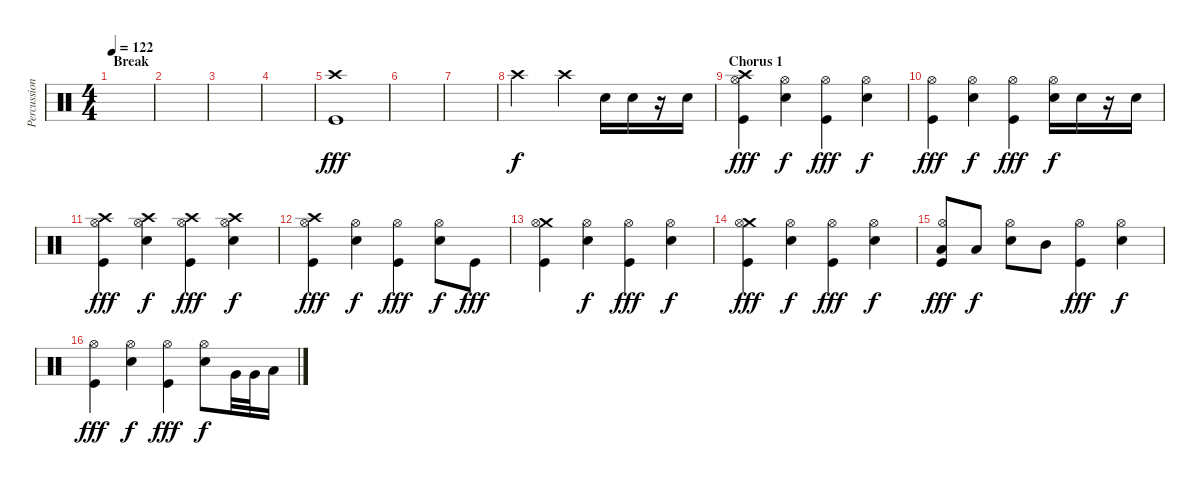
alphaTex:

\track ("Percussion" "Percussion") {instrument percussion}
\staff {score}
\articulation defaults
\ts (4 4)
\section ("" "Break")
\tempo 122
\clef neutral
\ks c
|
|
|
|
("Crash high (hit)" "Kick (hit)").1{dy fff volume 14} |
|
|
"Crash high (hit)".2{dy f} "Crash high (hit)".4 "Electric Snare (hit)".16 "Electric Snare (hit)".16 r.16 "Electric Snare (hit)".16 |
\section ("" "Chorus 1")
("Crash high (hit)" "Hi-Hat (open)" "Kick (hit)").4{dy fff} ("Hi-Hat (open)" "Electric Snare (hit)").4{dy f} ("Hi-Hat (open)" "Kick (hit)").4{dy fff} ("Hi-Hat (open)" "Electric Snare (hit)").4{dy f} |
("Hi-Hat (open)" "Kick (hit)").4{dy fff} ("Hi-Hat (open)" "Electric Snare (hit)").4{dy f} ("Hi-Hat (open)" "Kick (hit)").4{dy fff} ("Hi-Hat (open)" "Electric Snare (hit)").16{dy f} "Electric Snare (hit)".16 r.16 "Electric Snare (hit)".16 |
("Crash high (hit)" "Hi-Hat (open)" "Kick (hit)").4{dy fff} ("Crash high (hit)" "Hi-Hat (open)" "Electric Snare (hit)").4{dy f} ("Crash high (hit)" "Hi-Hat (open)" "Kick (hit)").4{dy fff} ("Crash high (hit)" "Hi-Hat (open)" "Electric Snare (hit)").4{dy f} |
("Crash high (hit)" "Hi-Hat (open)" "Kick (hit)").4{dy fff} ("Hi-Hat (open)" "Electric Snare (hit)").4{dy f} ("Hi-Hat (open)" "Kick (hit)").4{dy fff} ("Hi-Hat (open)" "Electric Snare (hit)").8{dy f} "Kick (hit)".8{dy fff} |
("Crash medium (hit)" "Hi-Hat (open)" "Kick (hit)").4 ("Hi-Hat (open)" "Electric Snare (hit)").4{dy f} ("Hi-Hat (open)" "Kick (hit)").4{dy fff} ("Hi-Hat (open)" "Electric Snare (hit)").4{dy f} |
("Crash medium (hit)" "Hi-Hat (open)" "Kick (hit)").4{dy fff} ("Hi-Hat (open)" "Electric Snare (hit)").4{dy f} ("Hi-Hat (open)" "Kick (hit)").4{dy fff} ("Hi-Hat (open)" "Electric Snare (hit)").4{dy f} |
("Hi-Hat (open)" "Low Tom (hit)" "Kick (hit)").8{dy fff} "Low Tom (hit)".8{dy f} ("Hi-Hat (open)" "Electric Snare (hit)").8 "Mid Tom (hit)".8 ("Hi-Hat (open)" "Kick (hit)").4{dy fff} ("Hi-Hat (open)" "Electric Snare (hit)").4{dy f} |
("Hi-Hat (open)" "Kick (hit)").4{dy fff} ("Hi-Hat (open)" "Electric Snare (hit)").4{dy f} ("Hi-Hat (open)" "Kick (hit)").4{dy fff} ("Hi-Hat (open)" "Electric Snare (hit)").8{dy f} "Very Low Tom (hit)".32 "Very Low Tom (hit)".32 "Low Floor Tom (hit)".16
